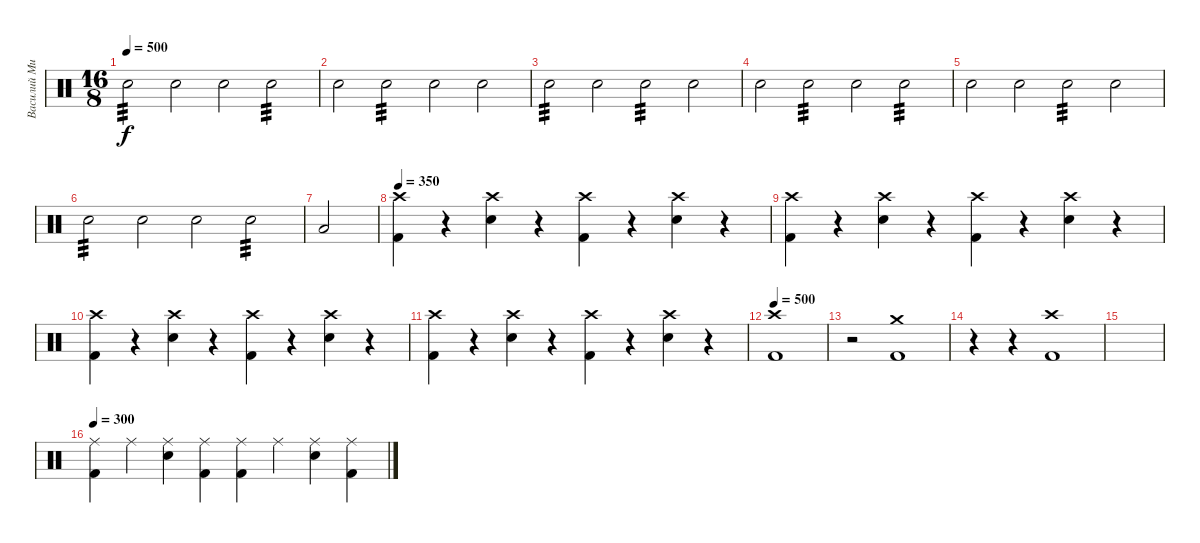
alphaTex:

\track ("Василий Михалыч-ударные" "Василий Ми") {instrument percussion}
\staff {score}
\articulation defaults
\ts (16 8)
\tempo 500
\clef neutral
\ks c "Electric Snare (hit)".2{tp 3 dy f} "Electric Snare (hit)".2 "Electric Snare (hit)".2 "Electric Snare (hit)".2{tp 3}
|
"Electric Snare (hit)".2 "Electric Snare (hit)".2{tp 3} "Electric Snare (hit)".2 "Electric Snare (hit)".2 |
"Electric Snare (hit)".2{tp 3} "Electric Snare (hit)".2 "Electric Snare (hit)".2{tp 3} "Electric Snare (hit)".2 |
"Electric Snare (hit)".2 "Electric Snare (hit)".2{tp 3} "Electric Snare (hit)".2 "Electric Snare (hit)".2{tp 3} |
"Electric Snare (hit)".2 "Electric Snare (hit)".2 "Electric Snare (hit)".2{tp 3} "Electric Snare (hit)".2 |
"Electric Snare (hit)".2{tp 3} "Electric Snare (hit)".2 "Electric Snare (hit)".2 "Electric Snare (hit)".2{tp 3} |
"Low Floor Tom (hit)".2 |
\tempo 350
("Kick (hit) 2" "Crash high (hit)").4 r.4 ("Electric Snare (hit)" "Crash high (hit)").4 r.4 ("Kick (hit) 2" "Crash high (hit)").4 r.4 ("Electric Snare (hit)" "Crash high (hit)").4 r.4 |
("Kick (hit) 2" "Crash high (hit)").4 r.4 ("Electric Snare (hit)" "Crash high (hit)").4 r.4 ("Kick (hit) 2" "Crash high (hit)").4 r.4 ("Electric Snare (hit)" "Crash high (hit)").4 r.4 |
("Kick (hit) 2" "Crash high (hit)").4 r.4 ("Electric Snare (hit)" "Crash high (hit)").4 r.4 ("Kick (hit) 2" "Crash high (hit)").4 r.4 ("Electric Snare (hit)" "Crash high (hit)").4 r.4 |
("Kick (hit) 2" "Crash high (hit)").4 r.4 ("Electric Snare (hit)" "Crash high (hit)").4 r.4 ("Kick (hit) 2" "Crash high (hit)").4 r.4 ("Electric Snare (hit)" "Crash high (hit)").4 r.4 |
\tempo 500
("Kick (hit) 2" "Crash high (hit)").1 |
r.2 ("Kick (hit) 2" "Crash medium (hit)").1 |
r.4 r.4 ("Kick (hit) 2" "Crash high (hit)").1 |
|
\tempo 300
("Kick (hit) 2" "Ride (middle)").4 "Ride (middle)".4 ("Electric Snare (hit)" "Ride (middle)").4 ("Kick (hit) 2" "Ride (middle)").4 ("Kick (hit) 2" "Ride (middle)").4 "Ride (middle)".4 ("Electric Snare (hit)" "Ride (middle)").4 ("Kick (hit) 2" "Ride (middle)").4
